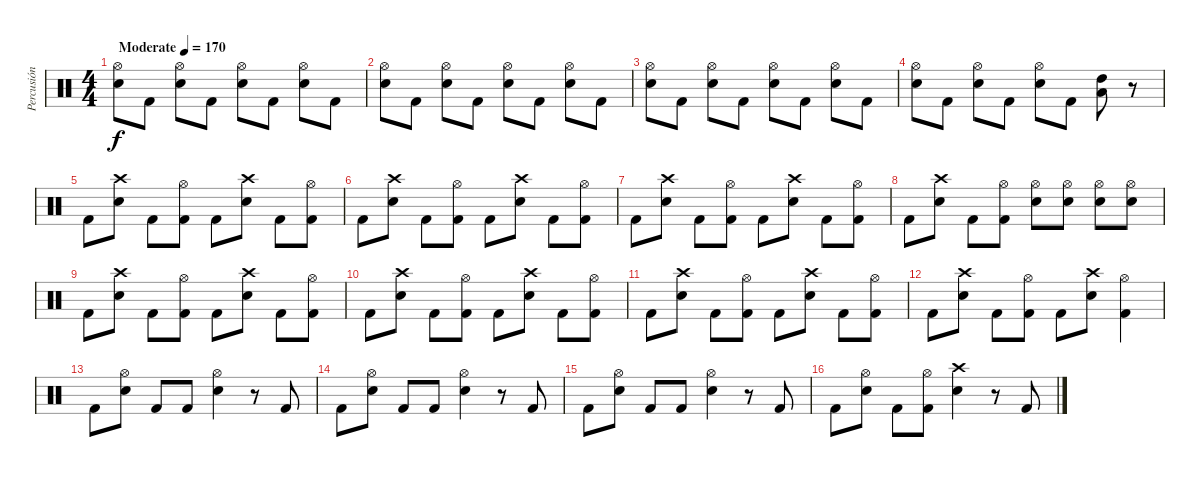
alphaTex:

\track ("Percusión" "Percusión") {instrument percussion}
\staff {score}
\articulation defaults
\ts (4 4)
\tempo (170 "Moderate")
\clef neutral
\ks c
("Hi-Hat (open)" "Electric Snare (hit)").8{dy f} "Kick (hit) 2".8 ("Hi-Hat (open)" "Electric Snare (hit)").8 "Kick (hit) 2".8 ("Hi-Hat (open)" "Electric Snare (hit)").8 "Kick (hit) 2".8 ("Hi-Hat (open)" "Electric Snare (hit)").8 "Kick (hit) 2".8 |
("Hi-Hat (open)" "Electric Snare (hit)").8 "Kick (hit) 2".8 ("Hi-Hat (open)" "Electric Snare (hit)").8 "Kick (hit) 2".8 ("Hi-Hat (open)" "Electric Snare (hit)").8 "Kick (hit) 2".8 ("Hi-Hat (open)" "Electric Snare (hit)").8 "Kick (hit) 2".8 |
("Hi-Hat (open)" "Electric Snare (hit)").8 "Kick (hit) 2".8 ("Hi-Hat (open)" "Electric Snare (hit)").8 "Kick (hit) 2".8 ("Hi-Hat (open)" "Electric Snare (hit)").8 "Kick (hit) 2".8 ("Hi-Hat (open)" "Electric Snare (hit)").8 "Kick (hit) 2".8 |
("Hi-Hat (open)" "Electric Snare (hit)").8 "Kick (hit) 2".8 ("Hi-Hat (open)" "Electric Snare (hit)").8 "Kick (hit) 2".8 ("Hi-Hat (open)" "Electric Snare (hit)").8 "Kick (hit) 2".8 ("Low Tom (hit)" "High Tom (hit)").8 r.8 |
"Kick (hit) 2".8 ("Crash high (hit)" "Electric Snare (hit)").8 "Kick (hit) 2".8 ("Hi-Hat (open)" "Kick (hit) 2").8 "Kick (hit) 2".8 ("Crash high (hit)" "Electric Snare (hit)").8 "Kick (hit) 2".8 ("Hi-Hat (open)" "Kick (hit) 2").8 |
"Kick (hit) 2".8 ("Crash high (hit)" "Electric Snare (hit)").8 "Kick (hit) 2".8 ("Hi-Hat (open)" "Kick (hit) 2").8 "Kick (hit) 2".8 ("Crash high (hit)" "Electric Snare (hit)").8 "Kick (hit) 2".8 ("Hi-Hat (open)" "Kick (hit) 2").8 |
"Kick (hit) 2".8 ("Crash high (hit)" "Electric Snare (hit)").8 "Kick (hit) 2".8 ("Hi-Hat (open)" "Kick (hit) 2").8 "Kick (hit) 2".8 ("Crash high (hit)" "Electric Snare (hit)").8 "Kick (hit) 2".8 ("Hi-Hat (open)" "Kick (hit) 2").8 |
"Kick (hit) 2".8 ("Crash high (hit)" "Electric Snare (hit)").8 "Kick (hit) 2".8 ("Hi-Hat (open)" "Kick (hit) 2").8 ("Hi-Hat (open)" "Electric Snare (hit)").8 ("Hi-Hat (open)" "Electric Snare (hit)").8 ("Hi-Hat (open)" "Electric Snare (hit)").8 ("Hi-Hat (open)" "Electric Snare (hit)").8 |
"Kick (hit) 2".8 ("Crash high (hit)" "Electric Snare (hit)").8 "Kick (hit) 2".8 ("Hi-Hat (open)" "Kick (hit) 2").8 "Kick (hit) 2".8 ("Crash high (hit)" "Electric Snare (hit)").8 "Kick (hit) 2".8 ("Hi-Hat (open)" "Kick (hit) 2").8 |
"Kick (hit) 2".8 ("Crash high (hit)" "Electric Snare (hit)").8 "Kick (hit) 2".8 ("Hi-Hat (open)" "Kick (hit) 2").8 "Kick (hit) 2".8 ("Crash high (hit)" "Electric Snare (hit)").8 "Kick (hit) 2".8 ("Hi-Hat (open)" "Kick (hit) 2").8 |
"Kick (hit) 2".8 ("Crash high (hit)" "Electric Snare (hit)").8 "Kick (hit) 2".8 ("Hi-Hat (open)" "Kick (hit) 2").8 "Kick (hit) 2".8 ("Crash high (hit)" "Electric Snare (hit)").8 "Kick (hit) 2".8 ("Hi-Hat (open)" "Kick (hit) 2").8 |
"Kick (hit) 2".8 ("Crash high (hit)" "Electric Snare (hit)").8 "Kick (hit) 2".8 ("Hi-Hat (open)" "Kick (hit) 2").8 "Kick (hit) 2".8 ("Crash high (hit)" "Electric Snare (hit)").8 ("Hi-Hat (open)" "Kick (hit) 2").4 |
"Kick (hit) 2".8 ("Hi-Hat (open)" "Electric Snare (hit)").8 "Kick (hit) 2".8 "Kick (hit) 2".8 ("Hi-Hat (open)" "Electric Snare (hit)").4 r.8 "Kick (hit) 2".8 |
"Kick (hit) 2".8 ("Hi-Hat (open)" "Electric Snare (hit)").8 "Kick (hit) 2".8 "Kick (hit) 2".8 ("Hi-Hat (open)" "Electric Snare (hit)").4 r.8 "Kick (hit) 2".8 |
"Kick (hit) 2".8 ("Hi-Hat (open)" "Electric Snare (hit)").8 "Kick (hit) 2".8 "Kick (hit) 2".8 ("Hi-Hat (open)" "Electric Snare (hit)").4 r.8 "Kick (hit) 2".8 |
"Kick (hit) 2".8 ("Hi-Hat (open)" "Electric Snare (hit)").8 "Kick (hit) 2".8 ("Hi-Hat (open)" "Kick (hit) 2").8 ("Crash high (hit)" "Electric Snare (hit)").4 r.8 "Kick (hit) 2".8
